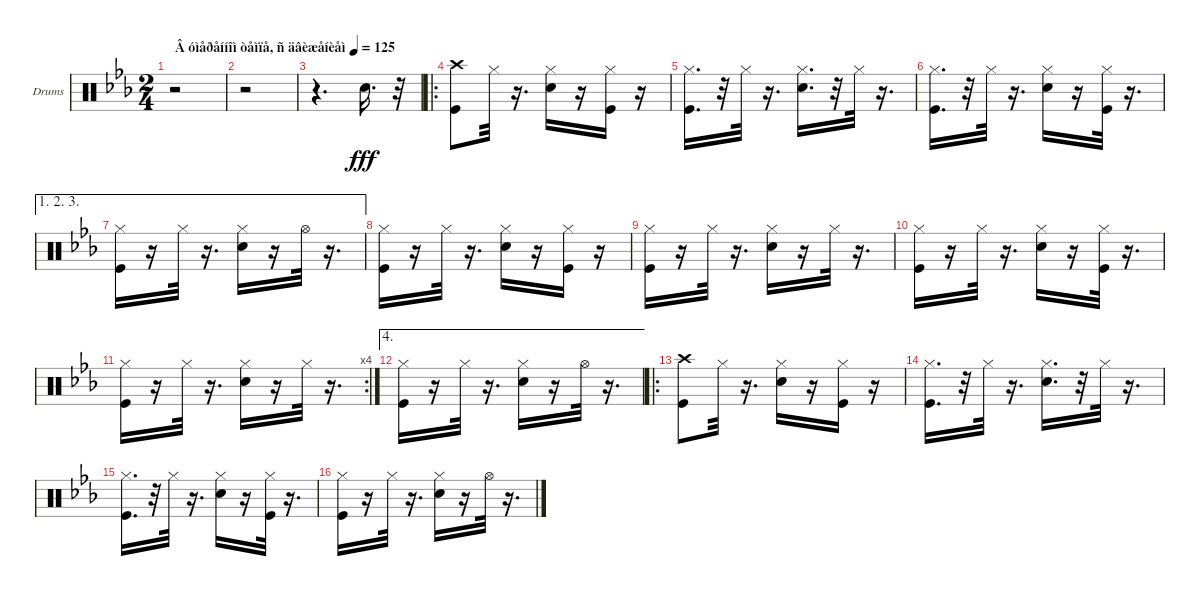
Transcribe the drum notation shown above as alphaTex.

\bracketExtendMode groupsimilarinstruments
\firstSystemTrackNameOrientation horizontal
\otherSystemsTrackNameOrientation horizontal
\track ("Drumkit" "Drums") {instrument percussion}
\staff {score}
\articulation defaults
\ts (2 4)
\beaming (8 2 2)
\tempo (125 "Â óìåðåííîì òåìïå, ñ äâèæåíèåì")
\clef neutral
\ks cminor
r.2{dy fff} |
r.2 |
r.4{d} "Snare (hit) 2".16{d} r.32 |
\ro
("Kick (hit)" "Crash high (hit)").8 "Hi-Hat (closed)".32 r.16{d} ("Snare (hit) 2" "Hi-Hat (closed)").16 r.16 ("Kick (hit)" "Hi-Hat (closed)").16 r.16 |
("Kick (hit)" "Hi-Hat (closed)").16{d} r.32 "Hi-Hat (closed)".32 r.16{d} ("Snare (hit) 2" "Hi-Hat (closed)").16{d} r.32 "Hi-Hat (closed)".32 r.16{d} |
("Kick (hit)" "Hi-Hat (closed)").16{d} r.32 "Hi-Hat (closed)".32 r.16{d} ("Snare (hit) 2" "Hi-Hat (closed)").16 r.16 ("Kick (hit)" "Hi-Hat (closed)").32 r.16{d} |
\ae (1 2 3)
("Kick (hit)" "Hi-Hat (closed)").16 r.16 "Hi-Hat (closed)".32 r.16{d} ("Snare (hit) 2" "Hi-Hat (closed)").16 r.16 "Hi-Hat (open)".32 r.16{d} |
("Kick (hit)" "Hi-Hat (closed)").16 r.16 "Hi-Hat (closed)".32 r.16{d} ("Snare (hit) 2" "Hi-Hat (closed)").16 r.16 ("Kick (hit)" "Hi-Hat (closed)").16 r.16 |
("Kick (hit)" "Hi-Hat (closed)").16 r.16 "Hi-Hat (closed)".32 r.16{d} ("Snare (hit) 2" "Hi-Hat (closed)").16 r.16 "Hi-Hat (closed)".32 r.16{d} |
("Kick (hit)" "Hi-Hat (closed)").16 r.16 "Hi-Hat (closed)".32 r.16{d} ("Snare (hit) 2" "Hi-Hat (closed)").16 r.16 ("Kick (hit)" "Hi-Hat (closed)").32 r.16{d} |
\rc 4
("Kick (hit)" "Hi-Hat (closed)").16 r.16 "Hi-Hat (closed)".32 r.16{d} ("Snare (hit) 2" "Hi-Hat (closed)").16 r.16 "Hi-Hat (closed)".32 r.16{d} |
\ae 4
("Kick (hit)" "Hi-Hat (closed)").16 r.16 "Hi-Hat (closed)".32 r.16{d} ("Snare (hit) 2" "Hi-Hat (closed)").16 r.16 "Hi-Hat (open)".32 r.16{d} |
\ro
("Kick (hit)" "Crash high (hit)").8 "Hi-Hat (closed)".32 r.16{d} ("Snare (hit) 2" "Hi-Hat (closed)").16 r.16 ("Kick (hit)" "Hi-Hat (closed)").16 r.16 |
("Kick (hit)" "Hi-Hat (closed)").16{d} r.32 "Hi-Hat (closed)".32 r.16{d} ("Snare (hit) 2" "Hi-Hat (closed)").16{d} r.32 "Hi-Hat (closed)".32 r.16{d} |
("Kick (hit)" "Hi-Hat (closed)").16{d} r.32 "Hi-Hat (closed)".32 r.16{d} ("Snare (hit) 2" "Hi-Hat (closed)").16 r.16 ("Kick (hit)" "Hi-Hat (closed)").32 r.16{d} |
("Kick (hit)" "Hi-Hat (closed)").16 r.16 "Hi-Hat (closed)".32 r.16{d} ("Snare (hit) 2" "Hi-Hat (closed)").16 r.16 "Hi-Hat (open)".32 r.16{d}
